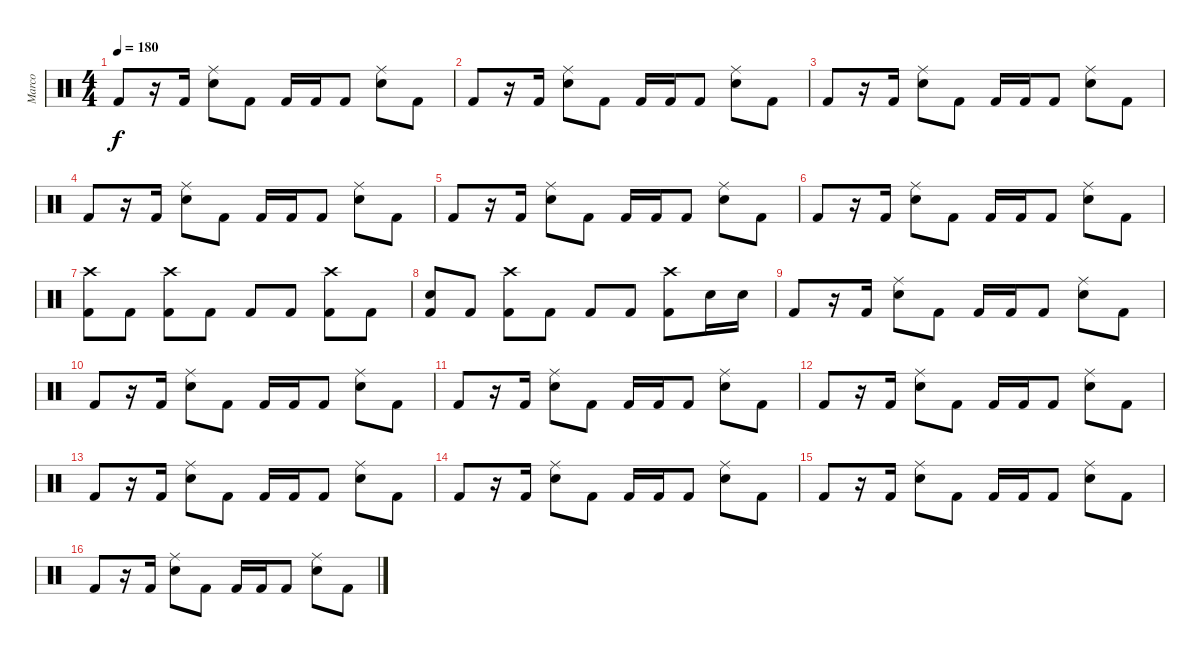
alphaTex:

\track ("Marco" "Marco") {instrument percussion}
\staff {score}
\articulation defaults
\ts (4 4)
\tempo 180
\clef neutral
\ks c "Kick (hit) 2".8{dy f}
r.16 "Kick (hit) 2".16 ("Electric Snare (hit)" "Ride (middle)").8 "Kick (hit) 2".8 "Kick (hit) 2".16 "Kick (hit) 2".16 "Kick (hit) 2".8 ("Electric Snare (hit)" "Ride (middle)").8 "Kick (hit) 2".8 |
"Kick (hit) 2".8 r.16 "Kick (hit) 2".16 ("Electric Snare (hit)" "Ride (middle)").8 "Kick (hit) 2".8 "Kick (hit) 2".16 "Kick (hit) 2".16 "Kick (hit) 2".8 ("Electric Snare (hit)" "Ride (middle)").8 "Kick (hit) 2".8 |
"Kick (hit) 2".8 r.16 "Kick (hit) 2".16 ("Electric Snare (hit)" "Ride (middle)").8 "Kick (hit) 2".8 "Kick (hit) 2".16 "Kick (hit) 2".16 "Kick (hit) 2".8 ("Electric Snare (hit)" "Ride (middle)").8 "Kick (hit) 2".8 |
"Kick (hit) 2".8 r.16 "Kick (hit) 2".16 ("Electric Snare (hit)" "Ride (middle)").8 "Kick (hit) 2".8 "Kick (hit) 2".16 "Kick (hit) 2".16 "Kick (hit) 2".8 ("Electric Snare (hit)" "Ride (middle)").8 "Kick (hit) 2".8 |
"Kick (hit) 2".8 r.16 "Kick (hit) 2".16 ("Electric Snare (hit)" "Ride (middle)").8 "Kick (hit) 2".8 "Kick (hit) 2".16 "Kick (hit) 2".16 "Kick (hit) 2".8 ("Electric Snare (hit)" "Ride (middle)").8 "Kick (hit) 2".8 |
"Kick (hit) 2".8 r.16 "Kick (hit) 2".16 ("Electric Snare (hit)" "Ride (middle)").8 "Kick (hit) 2".8 "Kick (hit) 2".16 "Kick (hit) 2".16 "Kick (hit) 2".8 ("Electric Snare (hit)" "Ride (middle)").8 "Kick (hit) 2".8 |
("Kick (hit) 2" "Crash high (hit)").8 "Kick (hit) 2".8 ("Kick (hit) 2" "Crash high (hit)").8 "Kick (hit) 2".8 "Kick (hit) 2".8 "Kick (hit) 2".8 ("Kick (hit) 2" "Crash high (hit)").8 "Kick (hit) 2".8 |
("Kick (hit) 2" "Electric Snare (hit)").8 "Kick (hit) 2".8 ("Kick (hit) 2" "Crash high (hit)").8 "Kick (hit) 2".8 "Kick (hit) 2".8 "Kick (hit) 2".8 ("Kick (hit) 2" "Crash high (hit)").8 "Electric Snare (hit)".16 "Electric Snare (hit)".16 |
"Kick (hit) 2".8 r.16 "Kick (hit) 2".16 ("Electric Snare (hit)" "Ride (middle)").8 "Kick (hit) 2".8 "Kick (hit) 2".16 "Kick (hit) 2".16 "Kick (hit) 2".8 ("Electric Snare (hit)" "Ride (middle)").8 "Kick (hit) 2".8 |
"Kick (hit) 2".8 r.16 "Kick (hit) 2".16 ("Electric Snare (hit)" "Ride (middle)").8 "Kick (hit) 2".8 "Kick (hit) 2".16 "Kick (hit) 2".16 "Kick (hit) 2".8 ("Electric Snare (hit)" "Ride (middle)").8 "Kick (hit) 2".8 |
"Kick (hit) 2".8 r.16 "Kick (hit) 2".16 ("Electric Snare (hit)" "Ride (middle)").8 "Kick (hit) 2".8 "Kick (hit) 2".16 "Kick (hit) 2".16 "Kick (hit) 2".8 ("Electric Snare (hit)" "Ride (middle)").8 "Kick (hit) 2".8 |
"Kick (hit) 2".8 r.16 "Kick (hit) 2".16 ("Electric Snare (hit)" "Ride (middle)").8 "Kick (hit) 2".8 "Kick (hit) 2".16 "Kick (hit) 2".16 "Kick (hit) 2".8 ("Electric Snare (hit)" "Ride (middle)").8 "Kick (hit) 2".8 |
"Kick (hit) 2".8 r.16 "Kick (hit) 2".16 ("Electric Snare (hit)" "Ride (middle)").8 "Kick (hit) 2".8 "Kick (hit) 2".16 "Kick (hit) 2".16 "Kick (hit) 2".8 ("Electric Snare (hit)" "Ride (middle)").8 "Kick (hit) 2".8 |
"Kick (hit) 2".8 r.16 "Kick (hit) 2".16 ("Electric Snare (hit)" "Ride (middle)").8 "Kick (hit) 2".8 "Kick (hit) 2".16 "Kick (hit) 2".16 "Kick (hit) 2".8 ("Electric Snare (hit)" "Ride (middle)").8 "Kick (hit) 2".8 |
"Kick (hit) 2".8 r.16 "Kick (hit) 2".16 ("Electric Snare (hit)" "Ride (middle)").8 "Kick (hit) 2".8 "Kick (hit) 2".16 "Kick (hit) 2".16 "Kick (hit) 2".8 ("Electric Snare (hit)" "Ride (middle)").8 "Kick (hit) 2".8 |
"Kick (hit) 2".8 r.16 "Kick (hit) 2".16 ("Electric Snare (hit)" "Ride (middle)").8 "Kick (hit) 2".8 "Kick (hit) 2".16 "Kick (hit) 2".16 "Kick (hit) 2".8 ("Electric Snare (hit)" "Ride (middle)").8 "Kick (hit) 2".8
